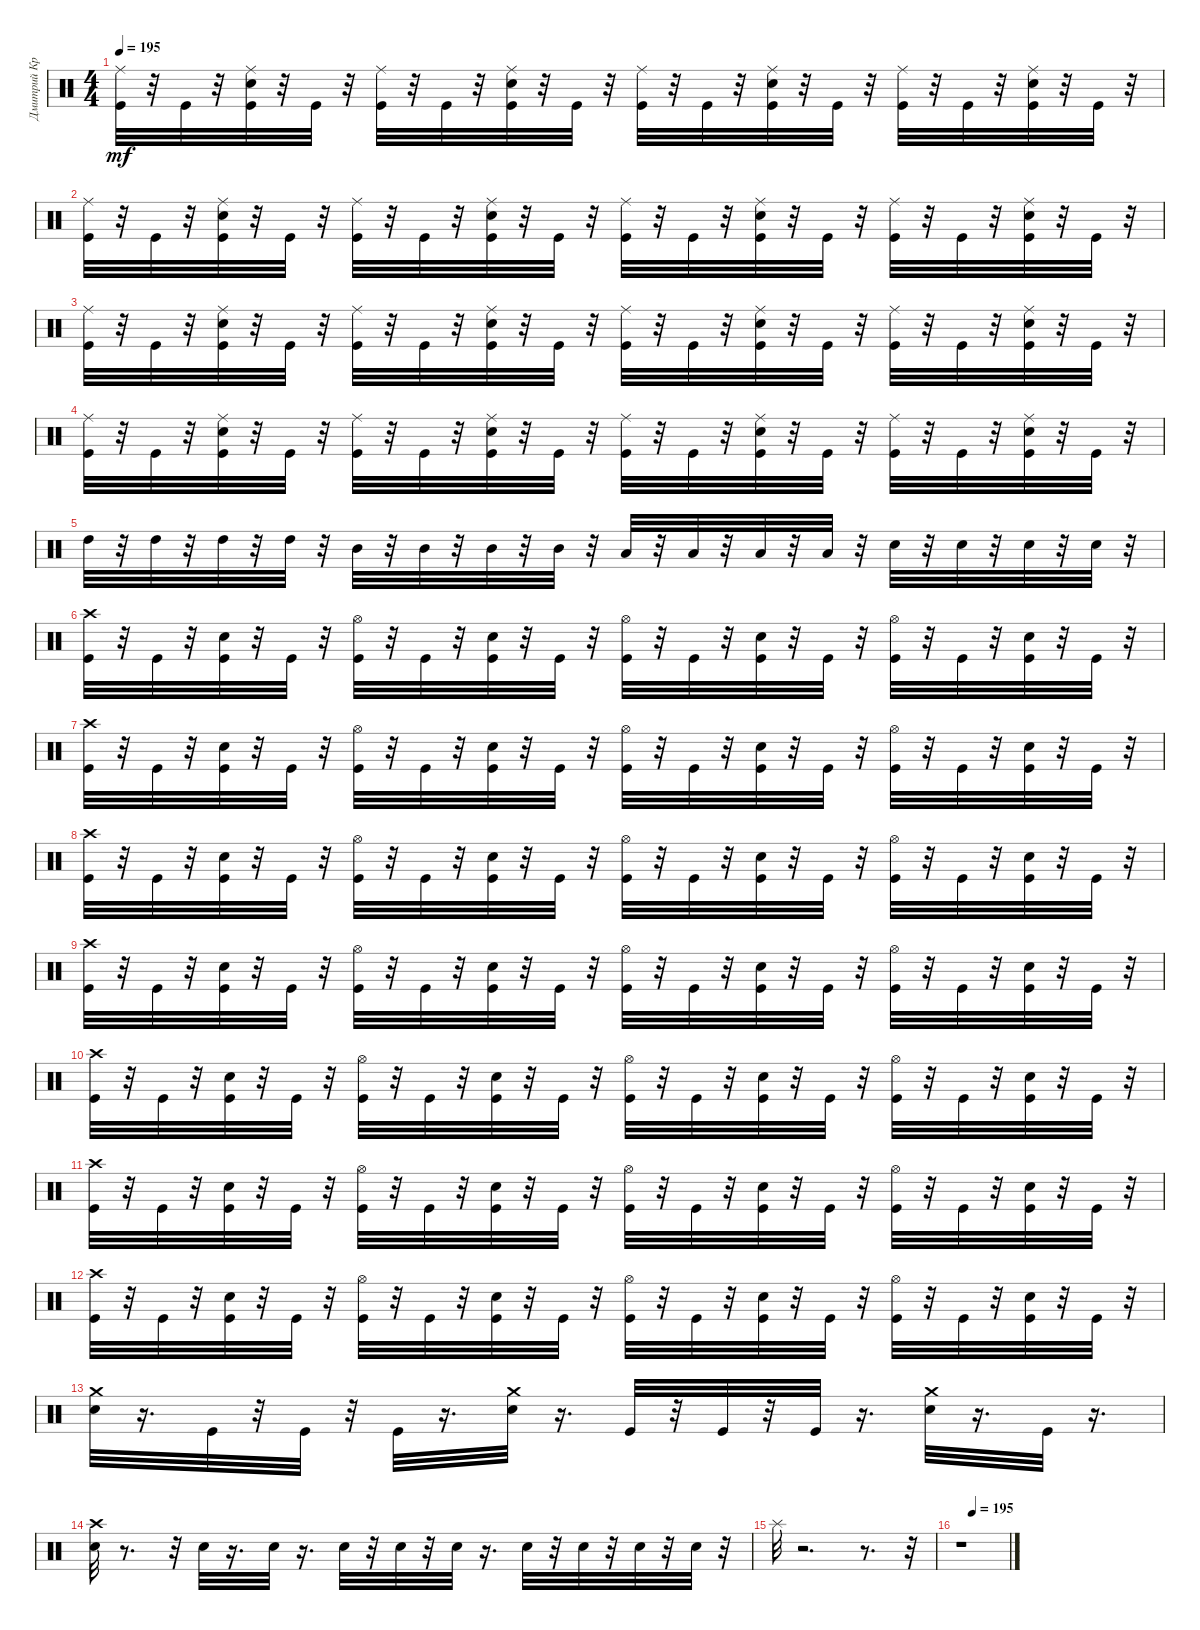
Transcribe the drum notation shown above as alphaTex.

\track ("Дмитрий Кривенков" "Дмитрий Кр") {instrument percussion}
\staff {score}
\articulation defaults
\ts (4 4)
\tempo 195
\clef neutral
\ks c
("Ride (middle)" "Kick (hit)").32{dy mf} r.32 "Kick (hit)".32 r.32 ("Electric Snare (hit)" "Kick (hit)" "Ride (middle)").32 r.32 "Kick (hit)".32 r.32 ("Ride (middle)" "Kick (hit)").32 r.32 "Kick (hit)".32 r.32 ("Ride (middle)" "Electric Snare (hit)" "Kick (hit)").32 r.32 "Kick (hit)".32 r.32 ("Ride (middle)" "Kick (hit)").32 r.32 "Kick (hit)".32 r.32 ("Electric Snare (hit)" "Kick (hit)" "Ride (middle)").32 r.32 "Kick (hit)".32 r.32 ("Ride (middle)" "Kick (hit)").32 r.32 "Kick (hit)".32 r.32 ("Ride (middle)" "Electric Snare (hit)" "Kick (hit)").32 r.32 "Kick (hit)".32 r.32 |
("Ride (middle)" "Kick (hit)").32 r.32 "Kick (hit)".32 r.32 ("Electric Snare (hit)" "Kick (hit)" "Ride (middle)").32 r.32 "Kick (hit)".32 r.32 ("Ride (middle)" "Kick (hit)").32 r.32 "Kick (hit)".32 r.32 ("Ride (middle)" "Electric Snare (hit)" "Kick (hit)").32 r.32 "Kick (hit)".32 r.32 ("Ride (middle)" "Kick (hit)").32 r.32 "Kick (hit)".32 r.32 ("Electric Snare (hit)" "Kick (hit)" "Ride (middle)").32 r.32 "Kick (hit)".32 r.32 ("Ride (middle)" "Kick (hit)").32 r.32 "Kick (hit)".32 r.32 ("Ride (middle)" "Electric Snare (hit)" "Kick (hit)").32 r.32 "Kick (hit)".32 r.32 |
("Ride (middle)" "Kick (hit)").32 r.32 "Kick (hit)".32 r.32 ("Electric Snare (hit)" "Kick (hit)" "Ride (middle)").32 r.32 "Kick (hit)".32 r.32 ("Ride (middle)" "Kick (hit)").32 r.32 "Kick (hit)".32 r.32 ("Ride (middle)" "Electric Snare (hit)" "Kick (hit)").32 r.32 "Kick (hit)".32 r.32 ("Ride (middle)" "Kick (hit)").32 r.32 "Kick (hit)".32 r.32 ("Electric Snare (hit)" "Kick (hit)" "Ride (middle)").32 r.32 "Kick (hit)".32 r.32 ("Ride (middle)" "Kick (hit)").32 r.32 "Kick (hit)".32 r.32 ("Ride (middle)" "Electric Snare (hit)" "Kick (hit)").32 r.32 "Kick (hit)".32 r.32 |
("Ride (middle)" "Kick (hit)").32 r.32 "Kick (hit)".32 r.32 ("Electric Snare (hit)" "Kick (hit)" "Ride (middle)").32 r.32 "Kick (hit)".32 r.32 ("Ride (middle)" "Kick (hit)").32 r.32 "Kick (hit)".32 r.32 ("Ride (middle)" "Electric Snare (hit)" "Kick (hit)").32 r.32 "Kick (hit)".32 r.32 ("Ride (middle)" "Kick (hit)").32 r.32 "Kick (hit)".32 r.32 ("Electric Snare (hit)" "Kick (hit)" "Ride (middle)").32 r.32 "Kick (hit)".32 r.32 ("Ride (middle)" "Kick (hit)").32 r.32 "Kick (hit)".32 r.32 ("Ride (middle)" "Electric Snare (hit)" "Kick (hit)").32 r.32 "Kick (hit)".32 r.32 |
"High Tom (hit)".32 r.32 "High Tom (hit)".32 r.32 "High Tom (hit)".32 r.32 "High Tom (hit)".32 r.32 "Mid Tom (hit)".32 r.32 "Mid Tom (hit)".32 r.32 "Mid Tom (hit)".32 r.32 "Mid Tom (hit)".32 r.32 "Low Tom (hit)".32 r.32 "Low Tom (hit)".32 r.32 "Low Tom (hit)".32 r.32 "Low Tom (hit)".32 r.32 "Electric Snare (hit)".32 r.32 "Electric Snare (hit)".32 r.32 "Electric Snare (hit)".32 r.32 "Electric Snare (hit)".32 r.32 |
("Crash high (hit)" "Kick (hit)").32 r.32 "Kick (hit)".32 r.32 ("Electric Snare (hit)" "Kick (hit)").32 r.32 "Kick (hit)".32 r.32 ("Hi-Hat (open)" "Kick (hit)").32 r.32 "Kick (hit)".32 r.32 ("Electric Snare (hit)" "Kick (hit)").32 r.32 "Kick (hit)".32 r.32 ("Hi-Hat (open)" "Kick (hit)").32 r.32 "Kick (hit)".32 r.32 ("Electric Snare (hit)" "Kick (hit)").32 r.32 "Kick (hit)".32 r.32 ("Hi-Hat (open)" "Kick (hit)").32 r.32 "Kick (hit)".32 r.32 ("Electric Snare (hit)" "Kick (hit)").32 r.32 "Kick (hit)".32 r.32 |
("Crash high (hit)" "Kick (hit)").32 r.32 "Kick (hit)".32 r.32 ("Electric Snare (hit)" "Kick (hit)").32 r.32 "Kick (hit)".32 r.32 ("Hi-Hat (open)" "Kick (hit)").32 r.32 "Kick (hit)".32 r.32 ("Electric Snare (hit)" "Kick (hit)").32 r.32 "Kick (hit)".32 r.32 ("Hi-Hat (open)" "Kick (hit)").32 r.32 "Kick (hit)".32 r.32 ("Electric Snare (hit)" "Kick (hit)").32 r.32 "Kick (hit)".32 r.32 ("Hi-Hat (open)" "Kick (hit)").32 r.32 "Kick (hit)".32 r.32 ("Electric Snare (hit)" "Kick (hit)").32 r.32 "Kick (hit)".32 r.32 |
("Crash high (hit)" "Kick (hit)").32 r.32 "Kick (hit)".32 r.32 ("Electric Snare (hit)" "Kick (hit)").32 r.32 "Kick (hit)".32 r.32 ("Hi-Hat (open)" "Kick (hit)").32 r.32 "Kick (hit)".32 r.32 ("Electric Snare (hit)" "Kick (hit)").32 r.32 "Kick (hit)".32 r.32 ("Hi-Hat (open)" "Kick (hit)").32 r.32 "Kick (hit)".32 r.32 ("Electric Snare (hit)" "Kick (hit)").32 r.32 "Kick (hit)".32 r.32 ("Hi-Hat (open)" "Kick (hit)").32 r.32 "Kick (hit)".32 r.32 ("Electric Snare (hit)" "Kick (hit)").32 r.32 "Kick (hit)".32 r.32 |
("Crash high (hit)" "Kick (hit)").32 r.32 "Kick (hit)".32 r.32 ("Electric Snare (hit)" "Kick (hit)").32 r.32 "Kick (hit)".32 r.32 ("Hi-Hat (open)" "Kick (hit)").32 r.32 "Kick (hit)".32 r.32 ("Electric Snare (hit)" "Kick (hit)").32 r.32 "Kick (hit)".32 r.32 ("Hi-Hat (open)" "Kick (hit)").32 r.32 "Kick (hit)".32 r.32 ("Electric Snare (hit)" "Kick (hit)").32 r.32 "Kick (hit)".32 r.32 ("Hi-Hat (open)" "Kick (hit)").32 r.32 "Kick (hit)".32 r.32 ("Electric Snare (hit)" "Kick (hit)").32 r.32 "Kick (hit)".32 r.32 |
("Crash high (hit)" "Kick (hit)").32 r.32 "Kick (hit)".32 r.32 ("Electric Snare (hit)" "Kick (hit)").32 r.32 "Kick (hit)".32 r.32 ("Hi-Hat (open)" "Kick (hit)").32 r.32 "Kick (hit)".32 r.32 ("Electric Snare (hit)" "Kick (hit)").32 r.32 "Kick (hit)".32 r.32 ("Hi-Hat (open)" "Kick (hit)").32 r.32 "Kick (hit)".32 r.32 ("Electric Snare (hit)" "Kick (hit)").32 r.32 "Kick (hit)".32 r.32 ("Hi-Hat (open)" "Kick (hit)").32 r.32 "Kick (hit)".32 r.32 ("Electric Snare (hit)" "Kick (hit)").32 r.32 "Kick (hit)".32 r.32 |
("Crash high (hit)" "Kick (hit)").32 r.32 "Kick (hit)".32 r.32 ("Electric Snare (hit)" "Kick (hit)").32 r.32 "Kick (hit)".32 r.32 ("Hi-Hat (open)" "Kick (hit)").32 r.32 "Kick (hit)".32 r.32 ("Electric Snare (hit)" "Kick (hit)").32 r.32 "Kick (hit)".32 r.32 ("Hi-Hat (open)" "Kick (hit)").32 r.32 "Kick (hit)".32 r.32 ("Electric Snare (hit)" "Kick (hit)").32 r.32 "Kick (hit)".32 r.32 ("Hi-Hat (open)" "Kick (hit)").32 r.32 "Kick (hit)".32 r.32 ("Electric Snare (hit)" "Kick (hit)").32 r.32 "Kick (hit)".32 r.32 |
("Crash high (hit)" "Kick (hit)").32 r.32 "Kick (hit)".32 r.32 ("Electric Snare (hit)" "Kick (hit)").32 r.32 "Kick (hit)".32 r.32 ("Hi-Hat (open)" "Kick (hit)").32 r.32 "Kick (hit)".32 r.32 ("Electric Snare (hit)" "Kick (hit)").32 r.32 "Kick (hit)".32 r.32 ("Hi-Hat (open)" "Kick (hit)").32 r.32 "Kick (hit)".32 r.32 ("Electric Snare (hit)" "Kick (hit)").32 r.32 "Kick (hit)".32 r.32 ("Hi-Hat (open)" "Kick (hit)").32 r.32 "Kick (hit)".32 r.32 ("Electric Snare (hit)" "Kick (hit)").32 r.32 "Kick (hit)".32 r.32 |
("Crash medium (hit)" "Electric Snare (hit)").32 r.16{d} "Kick (hit)".32 r.32 "Kick (hit)".32 r.32 "Kick (hit)".32 r.16{d} ("Crash medium (hit)" "Electric Snare (hit)").32 r.16{d} "Kick (hit)".32 r.32 "Kick (hit)".32 r.32 "Kick (hit)".32 r.16{d} ("Electric Snare (hit)" "Crash medium (hit)").32 r.16{d} "Kick (hit)".32 r.16{d} |
("Crash high (hit)" "Electric Snare (hit)").32 r.8{d} r.32 "Electric Snare (hit)".32 r.16{d} "Electric Snare (hit)".32 r.16{d} "Electric Snare (hit)".32 r.32 "Electric Snare (hit)".32 r.32 "Electric Snare (hit)".32 r.16{d} "Electric Snare (hit)".32 r.32 "Electric Snare (hit)".32 r.32 "Electric Snare (hit)".32 r.32 "Electric Snare (hit)".32 r.32 |
"Splash (hit)".32 r.2{d} r.8{d} r.32 |
\tempo (195 0.25)
r.1
